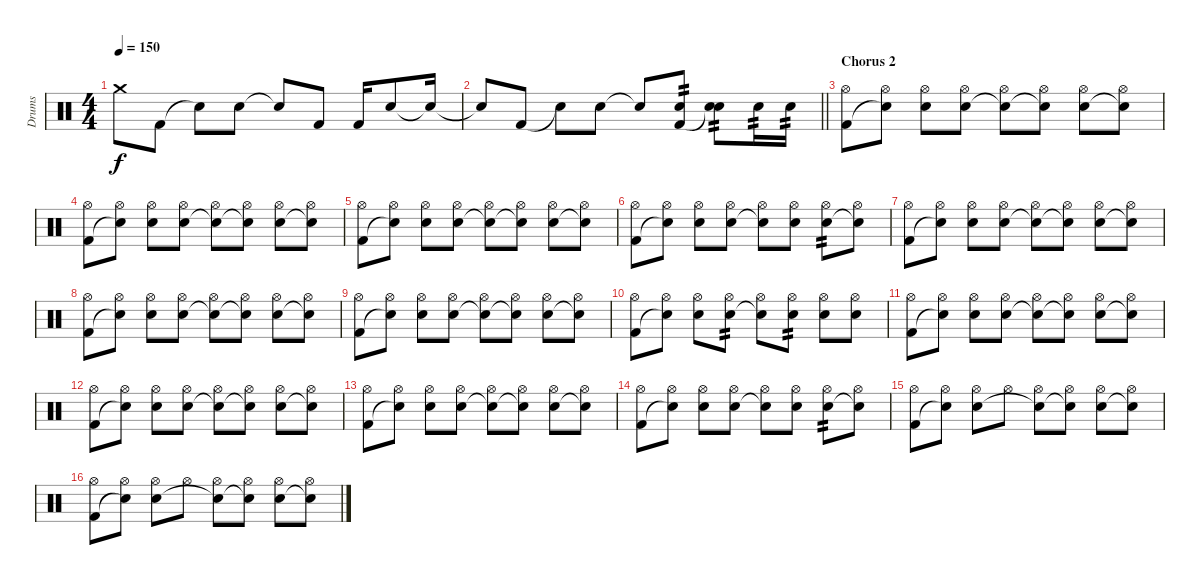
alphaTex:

\track ("Drums" "Drums") {instrument percussion}
\staff {score}
\articulation defaults
\ts (4 4)
\tempo 150
\clef neutral
\ks c "Crash medium (hit)".8{dy f} "Kick (hit) 2".8 "Snare (hit)"{t}.8 "Electric Snare (hit)".8 "Snare (hit)"{t}.8 "Kick (hit) 2".8 "Kick (hit) 2".16 "Electric Snare (hit)".8 "Snare (hit)"{t}.16
|
\barLineRight lightlight "Snare (hit)"{t}.8 "Kick (hit) 2".8 "Snare (hit)"{t}.8 "Electric Snare (hit)".8 "Snare (hit)"{t}.8
("Electric Snare (hit)" "Kick (hit) 2").8{tp 2} ("Electric Snare (hit)" "Snare (hit)"{t}).8{tp 2} "Electric Snare (hit)".16{tp 2} "Electric Snare (hit)".16{tp 2} |
\section ("" "Chorus 2")
("Hi-Hat (open)" "Kick (hit) 2").8 ("Hi-Hat (open)" "Snare (hit)"{t}).8 ("Hi-Hat (open)" "Electric Snare (hit)").8 ("Hi-Hat (open)" "Electric Snare (hit)").8 ("Hi-Hat (open)" "Snare (hit)"{t}).8 ("Hi-Hat (open)" "Electric Snare (hit)"{t}).8 ("Hi-Hat (open)" "Electric Snare (hit)").8 ("Hi-Hat (open)" "Snare (hit)"{t}).8 |
("Hi-Hat (open)" "Kick (hit) 2").8 ("Hi-Hat (open)" "Snare (hit)"{t}).8 ("Hi-Hat (open)" "Electric Snare (hit)").8 ("Hi-Hat (open)" "Electric Snare (hit)").8 ("Hi-Hat (open)" "Snare (hit)"{t}).8 ("Hi-Hat (open)" "Electric Snare (hit)"{t}).8 ("Hi-Hat (open)" "Electric Snare (hit)").8 ("Hi-Hat (open)" "Snare (hit)"{t}).8 |
("Hi-Hat (open)" "Kick (hit) 2").8 ("Hi-Hat (open)" "Snare (hit)"{t}).8 ("Hi-Hat (open)" "Electric Snare (hit)").8 ("Hi-Hat (open)" "Electric Snare (hit)").8 ("Hi-Hat (open)" "Snare (hit)"{t}).8 ("Hi-Hat (open)" "Electric Snare (hit)"{t}).8 ("Hi-Hat (open)" "Electric Snare (hit)").8 ("Hi-Hat (open)" "Snare (hit)"{t}).8 |
("Hi-Hat (open)" "Kick (hit) 2").8 ("Hi-Hat (open)" "Snare (hit)"{t}).8 ("Hi-Hat (open)" "Electric Snare (hit)").8 ("Hi-Hat (open)" "Electric Snare (hit)").8 ("Hi-Hat (open)" "Snare (hit)"{t}).8 ("Hi-Hat (open)" "Electric Snare (hit)").8 ("Hi-Hat (open)" "Electric Snare (hit)").8{tp 2} ("Hi-Hat (open)" "Snare (hit)"{t}).8 |
("Hi-Hat (open)" "Kick (hit) 2").8 ("Hi-Hat (open)" "Snare (hit)"{t}).8 ("Hi-Hat (open)" "Electric Snare (hit)").8 ("Hi-Hat (open)" "Electric Snare (hit)").8 ("Hi-Hat (open)" "Snare (hit)"{t}).8 ("Hi-Hat (open)" "Electric Snare (hit)"{t}).8 ("Hi-Hat (open)" "Electric Snare (hit)").8 ("Hi-Hat (open)" "Snare (hit)"{t}).8 |
("Hi-Hat (open)" "Kick (hit) 2").8 ("Hi-Hat (open)" "Snare (hit)"{t}).8 ("Hi-Hat (open)" "Electric Snare (hit)").8 ("Hi-Hat (open)" "Electric Snare (hit)").8 ("Hi-Hat (open)" "Snare (hit)"{t}).8 ("Hi-Hat (open)" "Electric Snare (hit)"{t}).8 ("Hi-Hat (open)" "Electric Snare (hit)").8 ("Hi-Hat (open)" "Snare (hit)"{t}).8 |
("Hi-Hat (open)" "Kick (hit) 2").8 ("Hi-Hat (open)" "Snare (hit)"{t}).8 ("Hi-Hat (open)" "Electric Snare (hit)").8 ("Hi-Hat (open)" "Electric Snare (hit)").8 ("Hi-Hat (open)" "Snare (hit)"{t}).8 ("Hi-Hat (open)" "Electric Snare (hit)"{t}).8 ("Hi-Hat (open)" "Electric Snare (hit)").8 ("Hi-Hat (open)" "Snare (hit)"{t}).8 |
("Hi-Hat (open)" "Kick (hit) 2").8 ("Hi-Hat (open)" "Snare (hit)"{t}).8 ("Hi-Hat (open)" "Electric Snare (hit)").8 ("Hi-Hat (open)" "Electric Snare (hit)").8{tp 2} ("Hi-Hat (open)" "Snare (hit)"{t}).8 ("Hi-Hat (open)" "Electric Snare (hit)").8{tp 2} ("Hi-Hat (open)" "Electric Snare (hit)").8 ("Hi-Hat (open)" "Electric Snare (hit)").8 |
("Hi-Hat (open)" "Kick (hit) 2").8 ("Hi-Hat (open)" "Snare (hit)"{t}).8 ("Hi-Hat (open)" "Electric Snare (hit)").8 ("Hi-Hat (open)" "Electric Snare (hit)").8 ("Hi-Hat (open)" "Snare (hit)"{t}).8 ("Hi-Hat (open)" "Electric Snare (hit)"{t}).8 ("Hi-Hat (open)" "Electric Snare (hit)").8 ("Hi-Hat (open)" "Snare (hit)"{t}).8 |
("Hi-Hat (open)" "Kick (hit) 2").8 ("Hi-Hat (open)" "Snare (hit)"{t}).8 ("Hi-Hat (open)" "Electric Snare (hit)").8 ("Hi-Hat (open)" "Electric Snare (hit)").8 ("Hi-Hat (open)" "Snare (hit)"{t}).8 ("Hi-Hat (open)" "Electric Snare (hit)"{t}).8 ("Hi-Hat (open)" "Electric Snare (hit)").8 ("Hi-Hat (open)" "Snare (hit)"{t}).8 |
("Hi-Hat (open)" "Kick (hit) 2").8 ("Hi-Hat (open)" "Snare (hit)"{t}).8 ("Hi-Hat (open)" "Electric Snare (hit)").8 ("Hi-Hat (open)" "Electric Snare (hit)").8 ("Hi-Hat (open)" "Snare (hit)"{t}).8 ("Hi-Hat (open)" "Electric Snare (hit)"{t}).8 ("Hi-Hat (open)" "Electric Snare (hit)").8 ("Hi-Hat (open)" "Snare (hit)"{t}).8 |
("Hi-Hat (open)" "Kick (hit) 2").8 ("Hi-Hat (open)" "Snare (hit)"{t}).8 ("Hi-Hat (open)" "Electric Snare (hit)").8 ("Hi-Hat (open)" "Electric Snare (hit)").8 ("Hi-Hat (open)" "Snare (hit)"{t}).8 ("Hi-Hat (open)" "Electric Snare (hit)").8 ("Hi-Hat (open)" "Electric Snare (hit)").8{tp 2} ("Hi-Hat (open)" "Snare (hit)"{t}).8 |
("Hi-Hat (open)" "Kick (hit) 2").8 ("Hi-Hat (open)" "Snare (hit)"{t}).8 ("Hi-Hat (open)" "Electric Snare (hit)").8 "Hi-Hat (open)".8 ("Hi-Hat (open)" "Snare (hit)"{t}).8 ("Hi-Hat (open)" "Electric Snare (hit)"{t}).8 ("Hi-Hat (open)" "Electric Snare (hit)").8 ("Hi-Hat (open)" "Snare (hit)"{t}).8 |
("Hi-Hat (open)" "Kick (hit) 2").8 ("Hi-Hat (open)" "Snare (hit)"{t}).8 ("Hi-Hat (open)" "Electric Snare (hit)").8 "Hi-Hat (open)".8 ("Hi-Hat (open)" "Snare (hit)"{t}).8 ("Hi-Hat (open)" "Electric Snare (hit)"{t}).8 ("Hi-Hat (open)" "Electric Snare (hit)").8 ("Hi-Hat (open)" "Snare (hit)"{t}).8
